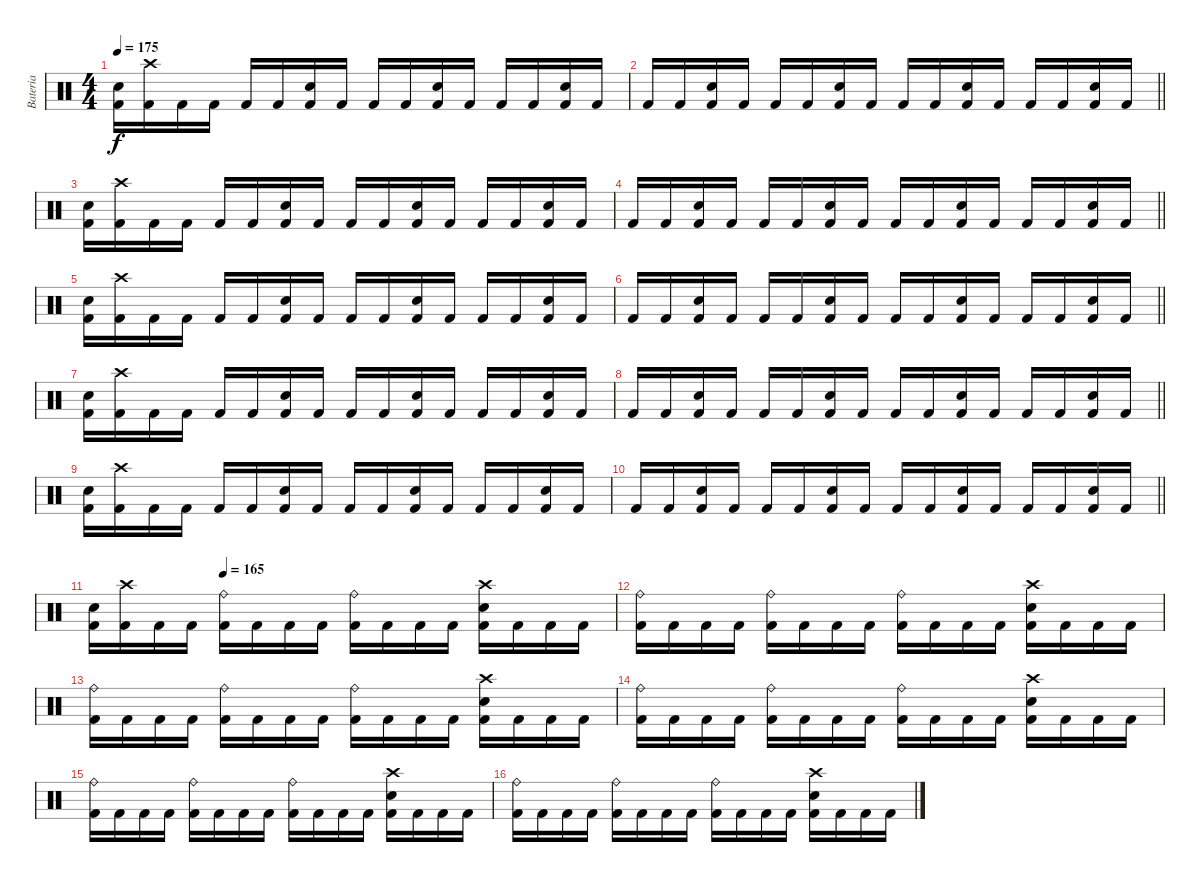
\track ("Bateria" "Bateria") {instrument percussion}
\staff {score}
\articulation defaults
\ts (4 4)
\tempo 175
\clef neutral
\ks c
("Snare (hit) 2" "Kick (hit) 2").16{dy f} ("Crash high (hit)" "Kick (hit) 2").16 "Kick (hit) 2".16 "Kick (hit) 2".16 "Kick (hit) 2".16 "Kick (hit) 2".16 ("Snare (hit) 2" "Kick (hit) 2").16 "Kick (hit) 2".16 "Kick (hit) 2".16 "Kick (hit) 2".16 ("Snare (hit) 2" "Kick (hit) 2").16 "Kick (hit) 2".16 "Kick (hit) 2".16 "Kick (hit) 2".16 ("Snare (hit) 2" "Kick (hit) 2").16 "Kick (hit) 2".16 |
\barLineRight lightlight "Kick (hit) 2".16 "Kick (hit) 2".16
("Snare (hit) 2" "Kick (hit) 2").16 "Kick (hit) 2".16 "Kick (hit) 2".16 "Kick (hit) 2".16 ("Snare (hit) 2" "Kick (hit) 2").16 "Kick (hit) 2".16 "Kick (hit) 2".16 "Kick (hit) 2".16 ("Snare (hit) 2" "Kick (hit) 2").16 "Kick (hit) 2".16 "Kick (hit) 2".16 "Kick (hit) 2".16 ("Snare (hit) 2" "Kick (hit) 2").16 "Kick (hit) 2".16 |
("Snare (hit) 2" "Kick (hit) 2").16 ("Crash high (hit)" "Kick (hit) 2").16 "Kick (hit) 2".16 "Kick (hit) 2".16 "Kick (hit) 2".16 "Kick (hit) 2".16 ("Snare (hit) 2" "Kick (hit) 2").16 "Kick (hit) 2".16 "Kick (hit) 2".16 "Kick (hit) 2".16 ("Snare (hit) 2" "Kick (hit) 2").16 "Kick (hit) 2".16 "Kick (hit) 2".16 "Kick (hit) 2".16 ("Snare (hit) 2" "Kick (hit) 2").16 "Kick (hit) 2".16 |
\barLineRight lightlight "Kick (hit) 2".16 "Kick (hit) 2".16
("Snare (hit) 2" "Kick (hit) 2").16 "Kick (hit) 2".16 "Kick (hit) 2".16 "Kick (hit) 2".16 ("Snare (hit) 2" "Kick (hit) 2").16 "Kick (hit) 2".16 "Kick (hit) 2".16 "Kick (hit) 2".16 ("Snare (hit) 2" "Kick (hit) 2").16 "Kick (hit) 2".16 "Kick (hit) 2".16 "Kick (hit) 2".16 ("Snare (hit) 2" "Kick (hit) 2").16 "Kick (hit) 2".16 |
("Snare (hit) 2" "Kick (hit) 2").16 ("Crash high (hit)" "Kick (hit) 2").16 "Kick (hit) 2".16 "Kick (hit) 2".16 "Kick (hit) 2".16 "Kick (hit) 2".16 ("Snare (hit) 2" "Kick (hit) 2").16 "Kick (hit) 2".16 "Kick (hit) 2".16 "Kick (hit) 2".16 ("Snare (hit) 2" "Kick (hit) 2").16 "Kick (hit) 2".16 "Kick (hit) 2".16 "Kick (hit) 2".16 ("Snare (hit) 2" "Kick (hit) 2").16 "Kick (hit) 2".16 |
\barLineRight lightlight "Kick (hit) 2".16 "Kick (hit) 2".16
("Snare (hit) 2" "Kick (hit) 2").16 "Kick (hit) 2".16 "Kick (hit) 2".16 "Kick (hit) 2".16 ("Snare (hit) 2" "Kick (hit) 2").16 "Kick (hit) 2".16 "Kick (hit) 2".16 "Kick (hit) 2".16 ("Snare (hit) 2" "Kick (hit) 2").16 "Kick (hit) 2".16 "Kick (hit) 2".16 "Kick (hit) 2".16 ("Snare (hit) 2" "Kick (hit) 2").16 "Kick (hit) 2".16 |
("Snare (hit) 2" "Kick (hit) 2").16 ("Crash high (hit)" "Kick (hit) 2").16 "Kick (hit) 2".16 "Kick (hit) 2".16 "Kick (hit) 2".16 "Kick (hit) 2".16 ("Snare (hit) 2" "Kick (hit) 2").16 "Kick (hit) 2".16 "Kick (hit) 2".16 "Kick (hit) 2".16 ("Snare (hit) 2" "Kick (hit) 2").16 "Kick (hit) 2".16 "Kick (hit) 2".16 "Kick (hit) 2".16 ("Snare (hit) 2" "Kick (hit) 2").16 "Kick (hit) 2".16 |
\barLineRight lightlight "Kick (hit) 2".16 "Kick (hit) 2".16
("Snare (hit) 2" "Kick (hit) 2").16 "Kick (hit) 2".16 "Kick (hit) 2".16 "Kick (hit) 2".16 ("Snare (hit) 2" "Kick (hit) 2").16 "Kick (hit) 2".16 "Kick (hit) 2".16 "Kick (hit) 2".16 ("Snare (hit) 2" "Kick (hit) 2").16 "Kick (hit) 2".16 "Kick (hit) 2".16 "Kick (hit) 2".16 ("Snare (hit) 2" "Kick (hit) 2").16 "Kick (hit) 2".16 |
("Snare (hit) 2" "Kick (hit) 2").16 ("Crash high (hit)" "Kick (hit) 2").16 "Kick (hit) 2".16 "Kick (hit) 2".16 "Kick (hit) 2".16 "Kick (hit) 2".16 ("Snare (hit) 2" "Kick (hit) 2").16 "Kick (hit) 2".16 "Kick (hit) 2".16 "Kick (hit) 2".16 ("Snare (hit) 2" "Kick (hit) 2").16 "Kick (hit) 2".16 "Kick (hit) 2".16 "Kick (hit) 2".16 ("Snare (hit) 2" "Kick (hit) 2").16 "Kick (hit) 2".16 |
\barLineRight lightlight "Kick (hit) 2".16 "Kick (hit) 2".16
("Snare (hit) 2" "Kick (hit) 2").16 "Kick (hit) 2".16 "Kick (hit) 2".16 "Kick (hit) 2".16 ("Snare (hit) 2" "Kick (hit) 2").16 "Kick (hit) 2".16 "Kick (hit) 2".16 "Kick (hit) 2".16 ("Snare (hit) 2" "Kick (hit) 2").16 "Kick (hit) 2".16 "Kick (hit) 2".16 "Kick (hit) 2".16 ("Snare (hit) 2" "Kick (hit) 2").16 "Kick (hit) 2".16 |
\tempo (165 0.25)
("Snare (hit) 2" "Kick (hit) 2").16 ("Crash high (hit)" "Kick (hit) 2").16 "Kick (hit) 2".16 "Kick (hit) 2".16 ("Ride (bell)" "Kick (hit) 2").16 "Kick (hit) 2".16 "Kick (hit) 2".16 "Kick (hit) 2".16 ("Ride (bell)" "Kick (hit) 2").16 "Kick (hit) 2".16 "Kick (hit) 2".16 "Kick (hit) 2".16 ("Snare (hit) 2" "Crash high (hit)" "Kick (hit) 2").16 "Kick (hit) 2".16 "Kick (hit) 2".16 "Kick (hit) 2".16 |
("Ride (bell)" "Kick (hit) 2").16 "Kick (hit) 2".16 "Kick (hit) 2".16 "Kick (hit) 2".16 ("Ride (bell)" "Kick (hit) 2").16 "Kick (hit) 2".16 "Kick (hit) 2".16 "Kick (hit) 2".16 ("Ride (bell)" "Kick (hit) 2").16 "Kick (hit) 2".16 "Kick (hit) 2".16 "Kick (hit) 2".16 ("Snare (hit) 2" "Crash high (hit)" "Kick (hit) 2").16 "Kick (hit) 2".16 "Kick (hit) 2".16 "Kick (hit) 2".16 |
("Ride (bell)" "Kick (hit) 2").16 "Kick (hit) 2".16 "Kick (hit) 2".16 "Kick (hit) 2".16 ("Ride (bell)" "Kick (hit) 2").16 "Kick (hit) 2".16 "Kick (hit) 2".16 "Kick (hit) 2".16 ("Ride (bell)" "Kick (hit) 2").16 "Kick (hit) 2".16 "Kick (hit) 2".16 "Kick (hit) 2".16 ("Snare (hit) 2" "Crash high (hit)" "Kick (hit) 2").16 "Kick (hit) 2".16 "Kick (hit) 2".16 "Kick (hit) 2".16 |
("Ride (bell)" "Kick (hit) 2").16 "Kick (hit) 2".16 "Kick (hit) 2".16 "Kick (hit) 2".16 ("Ride (bell)" "Kick (hit) 2").16 "Kick (hit) 2".16 "Kick (hit) 2".16 "Kick (hit) 2".16 ("Ride (bell)" "Kick (hit) 2").16 "Kick (hit) 2".16 "Kick (hit) 2".16 "Kick (hit) 2".16 ("Snare (hit) 2" "Crash high (hit)" "Kick (hit) 2").16 "Kick (hit) 2".16 "Kick (hit) 2".16 "Kick (hit) 2".16 |
("Ride (bell)" "Kick (hit) 2").16 "Kick (hit) 2".16 "Kick (hit) 2".16 "Kick (hit) 2".16 ("Ride (bell)" "Kick (hit) 2").16 "Kick (hit) 2".16 "Kick (hit) 2".16 "Kick (hit) 2".16 ("Ride (bell)" "Kick (hit) 2").16 "Kick (hit) 2".16 "Kick (hit) 2".16 "Kick (hit) 2".16 ("Snare (hit) 2" "Crash high (hit)" "Kick (hit) 2").16 "Kick (hit) 2".16 "Kick (hit) 2".16 "Kick (hit) 2".16 |
("Ride (bell)" "Kick (hit) 2").16 "Kick (hit) 2".16 "Kick (hit) 2".16 "Kick (hit) 2".16 ("Ride (bell)" "Kick (hit) 2").16 "Kick (hit) 2".16 "Kick (hit) 2".16 "Kick (hit) 2".16 ("Ride (bell)" "Kick (hit) 2").16 "Kick (hit) 2".16 "Kick (hit) 2".16 "Kick (hit) 2".16 ("Snare (hit) 2" "Crash high (hit)" "Kick (hit) 2").16 "Kick (hit) 2".16 "Kick (hit) 2".16 "Kick (hit) 2".16
